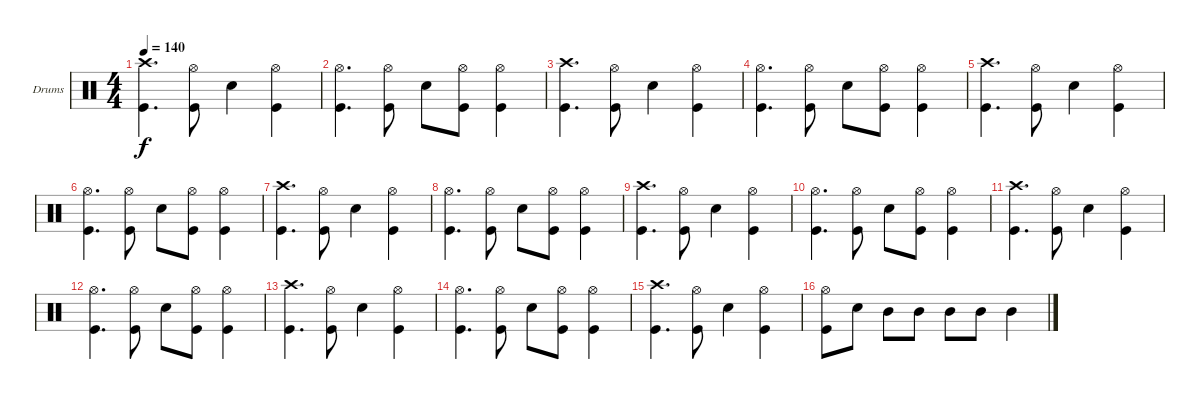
\bracketExtendMode groupsimilarinstruments
\firstSystemTrackNameOrientation horizontal
\otherSystemsTrackNameOrientation horizontal
\track ("Batterie - Anders Johansson" "Drums") {instrument percussion}
\staff {score}
\articulation defaults
\ts (4 4)
\beaming (8 2 2 2 2)
\tempo 140
\clef neutral
\ks c
("Crash high (hit)" "Kick (hit)").4{d dy f} ("Hi-Hat (open)" "Kick (hit)").8 "Snare (hit) 2".4 ("Hi-Hat (open)" "Kick (hit)").4 |
("Hi-Hat (open)" "Kick (hit)").4{d} ("Hi-Hat (open)" "Kick (hit)").8 "Snare (hit) 2".8 ("Hi-Hat (open)" "Kick (hit)").8 ("Hi-Hat (open)" "Kick (hit)").4 |
("Crash high (hit)" "Kick (hit)").4{d} ("Hi-Hat (open)" "Kick (hit)").8 "Snare (hit) 2".4 ("Hi-Hat (open)" "Kick (hit)").4 |
("Hi-Hat (open)" "Kick (hit)").4{d} ("Hi-Hat (open)" "Kick (hit)").8 "Snare (hit) 2".8 ("Hi-Hat (open)" "Kick (hit)").8 ("Hi-Hat (open)" "Kick (hit)").4 |
("Crash high (hit)" "Kick (hit)").4{d} ("Hi-Hat (open)" "Kick (hit)").8 "Snare (hit) 2".4 ("Hi-Hat (open)" "Kick (hit)").4 |
("Hi-Hat (open)" "Kick (hit)").4{d} ("Hi-Hat (open)" "Kick (hit)").8 "Snare (hit) 2".8 ("Hi-Hat (open)" "Kick (hit)").8 ("Hi-Hat (open)" "Kick (hit)").4 |
("Crash high (hit)" "Kick (hit)").4{d} ("Hi-Hat (open)" "Kick (hit)").8 "Snare (hit) 2".4 ("Hi-Hat (open)" "Kick (hit)").4 |
("Hi-Hat (open)" "Kick (hit)").4{d} ("Hi-Hat (open)" "Kick (hit)").8 "Snare (hit) 2".8 ("Hi-Hat (open)" "Kick (hit)").8 ("Hi-Hat (open)" "Kick (hit)").4 |
("Crash high (hit)" "Kick (hit)").4{d} ("Hi-Hat (open)" "Kick (hit)").8 "Snare (hit) 2".4 ("Hi-Hat (open)" "Kick (hit)").4 |
("Hi-Hat (open)" "Kick (hit)").4{d} ("Hi-Hat (open)" "Kick (hit)").8 "Snare (hit) 2".8 ("Hi-Hat (open)" "Kick (hit)").8 ("Hi-Hat (open)" "Kick (hit)").4 |
("Crash high (hit)" "Kick (hit)").4{d} ("Hi-Hat (open)" "Kick (hit)").8 "Snare (hit) 2".4 ("Hi-Hat (open)" "Kick (hit)").4 |
("Hi-Hat (open)" "Kick (hit)").4{d} ("Hi-Hat (open)" "Kick (hit)").8 "Snare (hit) 2".8 ("Hi-Hat (open)" "Kick (hit)").8 ("Hi-Hat (open)" "Kick (hit)").4 |
("Crash high (hit)" "Kick (hit)").4{d} ("Hi-Hat (open)" "Kick (hit)").8 "Snare (hit) 2".4 ("Hi-Hat (open)" "Kick (hit)").4 |
("Hi-Hat (open)" "Kick (hit)").4{d} ("Hi-Hat (open)" "Kick (hit)").8 "Snare (hit) 2".8 ("Hi-Hat (open)" "Kick (hit)").8 ("Hi-Hat (open)" "Kick (hit)").4 |
("Crash high (hit)" "Kick (hit)").4{d} ("Hi-Hat (open)" "Kick (hit)").8 "Snare (hit) 2".4 ("Hi-Hat (open)" "Kick (hit)").4 |
("Hi-Hat (open)" "Kick (hit)").8 "Snare (hit) 2".8 "Mid Tom (hit)".8 "Mid Tom (hit)".8 "Mid Tom (hit)".8 "Mid Tom (hit)".8 "Mid Tom (hit)".4
